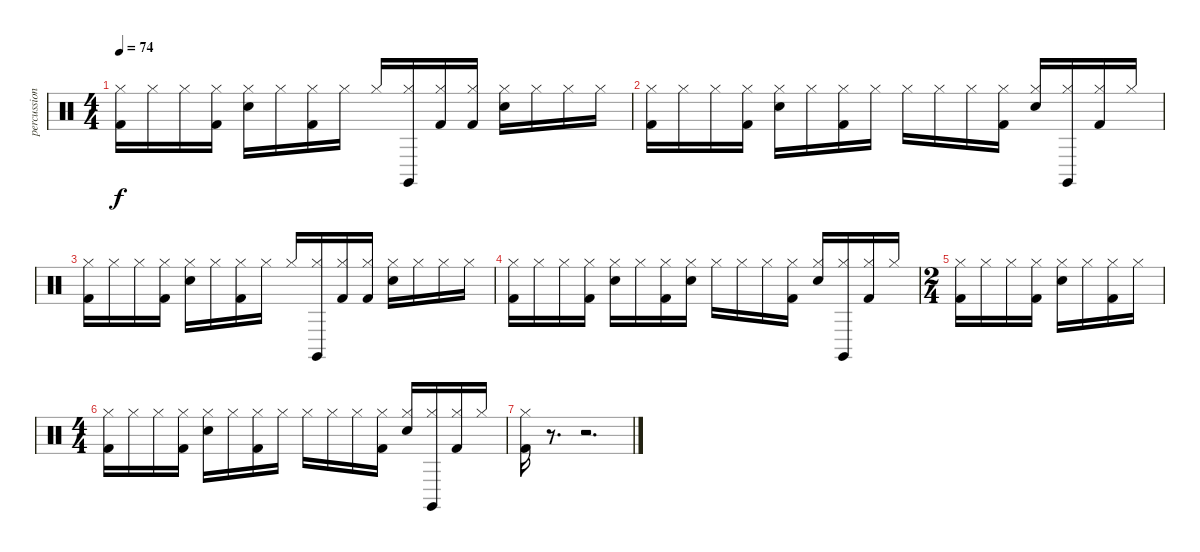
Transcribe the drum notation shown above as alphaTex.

\track ("percussion" "percussion") {instrument percussion}
\staff {score}
\articulation defaults
\ts (4 4)
\tempo 74
\clef neutral
\ks c
("Hi-Hat (closed)" "Kick (hit) 2").16{dy f} "Hi-Hat (closed)".16 "Hi-Hat (closed)".16 ("Hi-Hat (closed)" "Kick (hit) 2").16 ("Snare (hit) 2" "Hi-Hat (closed)").16 "Hi-Hat (closed)".16 ("Hi-Hat (closed)" "Kick (hit) 2").16 "Hi-Hat (closed)".16 "Hi-Hat (closed)".16 ("Claves (hit)" "Hi-Hat (closed)").16 ("Hi-Hat (closed)" "Kick (hit) 2").16 ("Hi-Hat (closed)" "Kick (hit) 2").16 ("Snare (hit) 2" "Hi-Hat (closed)").16 "Hi-Hat (closed)".16 "Hi-Hat (closed)".16 "Hi-Hat (closed)".16 |
("Hi-Hat (closed)" "Kick (hit) 2").16 "Hi-Hat (closed)".16 "Hi-Hat (closed)".16 ("Hi-Hat (closed)" "Kick (hit) 2").16 ("Snare (hit) 2" "Hi-Hat (closed)").16 "Hi-Hat (closed)".16 ("Hi-Hat (closed)" "Kick (hit) 2").16 "Hi-Hat (closed)".16 "Hi-Hat (closed)".16 "Hi-Hat (closed)".16 "Hi-Hat (closed)".16 ("Hi-Hat (closed)" "Kick (hit) 2").16 ("Snare (hit) 2" "Hi-Hat (closed)").16 ("Claves (hit)" "Hi-Hat (closed)").16 ("Hi-Hat (closed)" "Kick (hit) 2").16 "Hi-Hat (closed)".16 |
("Hi-Hat (closed)" "Kick (hit) 2").16 "Hi-Hat (closed)".16 "Hi-Hat (closed)".16 ("Hi-Hat (closed)" "Kick (hit) 2").16 ("Snare (hit) 2" "Hi-Hat (closed)").16 "Hi-Hat (closed)".16 ("Hi-Hat (closed)" "Kick (hit) 2").16 "Hi-Hat (closed)".16 "Hi-Hat (closed)".16 ("Claves (hit)" "Hi-Hat (closed)").16 ("Hi-Hat (closed)" "Kick (hit) 2").16 ("Hi-Hat (closed)" "Kick (hit) 2").16 ("Snare (hit) 2" "Hi-Hat (closed)").16 "Hi-Hat (closed)".16 "Hi-Hat (closed)".16 "Hi-Hat (closed)".16 |
("Hi-Hat (closed)" "Kick (hit) 2").16 "Hi-Hat (closed)".16 "Hi-Hat (closed)".16 ("Hi-Hat (closed)" "Kick (hit) 2").16 ("Snare (hit) 2" "Hi-Hat (closed)").16 "Hi-Hat (closed)".16 ("Hi-Hat (closed)" "Kick (hit) 2").16 ("Snare (hit) 2" "Hi-Hat (closed)").16 "Hi-Hat (closed)".16 "Hi-Hat (closed)".16 "Hi-Hat (closed)".16 ("Hi-Hat (closed)" "Kick (hit) 2").16 ("Snare (hit) 2" "Hi-Hat (closed)").16 ("Claves (hit)" "Hi-Hat (closed)").16 ("Hi-Hat (closed)" "Kick (hit) 2").16 "Hi-Hat (closed)".16 |
\ts (2 4)
("Hi-Hat (closed)" "Kick (hit) 2").16 "Hi-Hat (closed)".16 "Hi-Hat (closed)".16 ("Hi-Hat (closed)" "Kick (hit) 2").16 ("Snare (hit) 2" "Hi-Hat (closed)").16 "Hi-Hat (closed)".16 ("Hi-Hat (closed)" "Kick (hit) 2").16 "Hi-Hat (closed)".16 |
\ts (4 4)
("Hi-Hat (closed)" "Kick (hit) 2").16 "Hi-Hat (closed)".16 "Hi-Hat (closed)".16 ("Hi-Hat (closed)" "Kick (hit) 2").16 ("Snare (hit) 2" "Hi-Hat (closed)").16 "Hi-Hat (closed)".16 ("Hi-Hat (closed)" "Kick (hit) 2").16 "Hi-Hat (closed)".16 "Hi-Hat (closed)".16 "Hi-Hat (closed)".16 "Hi-Hat (closed)".16 ("Hi-Hat (closed)" "Kick (hit) 2").16 ("Snare (hit) 2" "Hi-Hat (closed)").16 ("Claves (hit)" "Hi-Hat (closed)").16 ("Hi-Hat (closed)" "Kick (hit) 2").16 "Hi-Hat (closed)".16 |
("Hi-Hat (closed)" "Kick (hit) 2").16 r.8{d} r.2{d}
